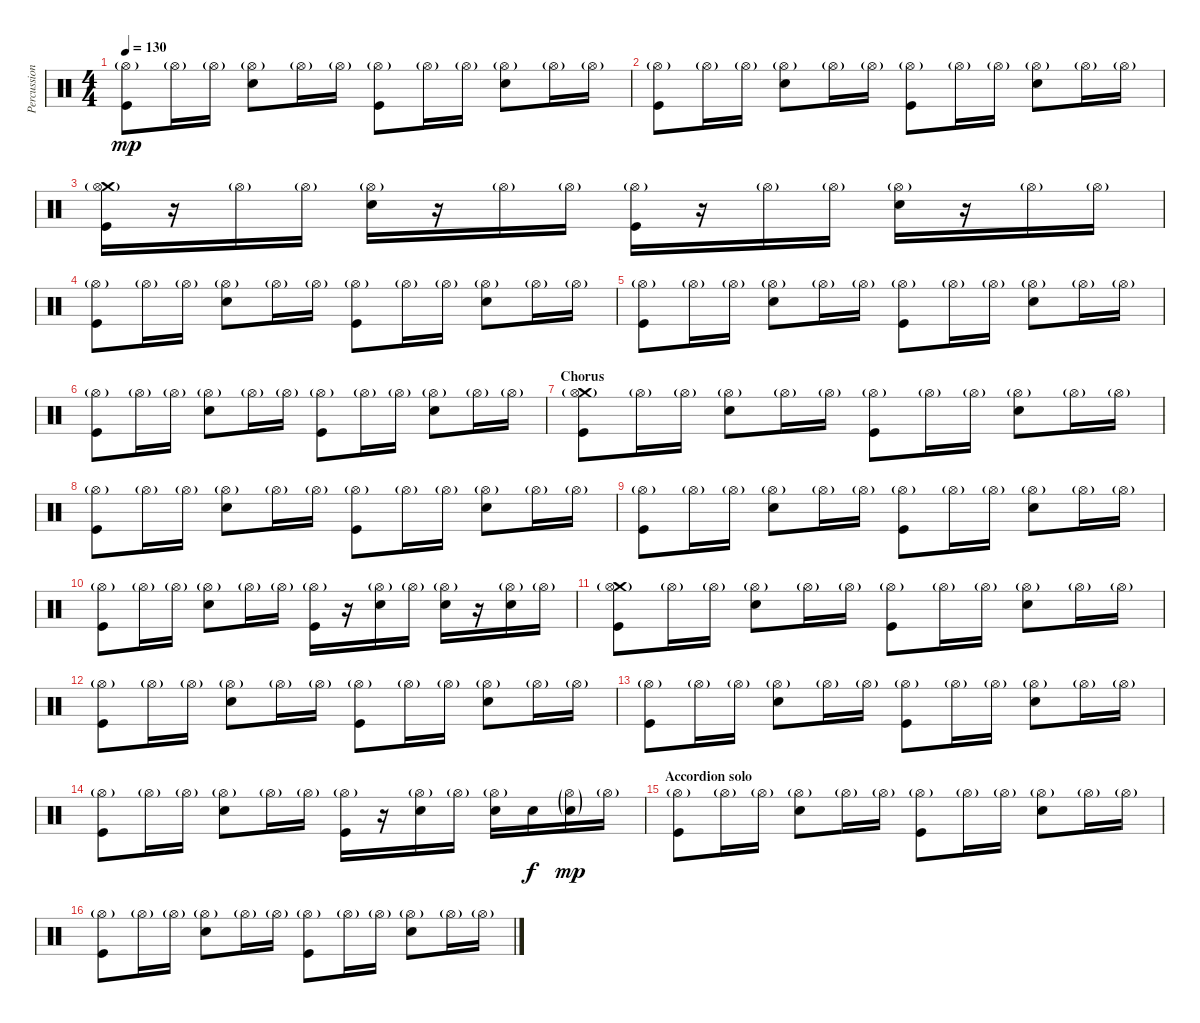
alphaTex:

\track ("Percussion" "Percussion") {instrument percussion}
\staff {score}
\articulation defaults
\ts (4 4)
\tempo 130
\clef neutral
\ks c
("Hi-Hat (open)"{g} "Kick (hit)").8{dy mp balance 8} "Hi-Hat (open)"{g}.16 "Hi-Hat (open)"{g}.16 ("Hi-Hat (open)"{g} "Snare (hit) 2").8 "Hi-Hat (open)"{g}.16 "Hi-Hat (open)"{g}.16 ("Hi-Hat (open)"{g} "Kick (hit)").8 "Hi-Hat (open)"{g}.16 "Hi-Hat (open)"{g}.16 ("Hi-Hat (open)"{g} "Snare (hit) 2").8 "Hi-Hat (open)"{g}.16 "Hi-Hat (open)"{g}.16 |
("Hi-Hat (open)"{g} "Kick (hit)").8{balance 8} "Hi-Hat (open)"{g}.16 "Hi-Hat (open)"{g}.16 ("Hi-Hat (open)"{g} "Snare (hit) 2").8 "Hi-Hat (open)"{g}.16 "Hi-Hat (open)"{g}.16 ("Hi-Hat (open)"{g} "Kick (hit)").8 "Hi-Hat (open)"{g}.16 "Hi-Hat (open)"{g}.16 ("Hi-Hat (open)"{g} "Snare (hit) 2").8 "Hi-Hat (open)"{g}.16 "Hi-Hat (open)"{g}.16 |
("Crash medium (hit)" "Hi-Hat (open)"{g} "Kick (hit)").16{balance 8} r.16 "Hi-Hat (open)"{g}.16 "Hi-Hat (open)"{g}.16 ("Hi-Hat (open)"{g} "Snare (hit) 2").16 r.16 "Hi-Hat (open)"{g}.16 "Hi-Hat (open)"{g}.16 ("Hi-Hat (open)"{g} "Kick (hit)").16 r.16 "Hi-Hat (open)"{g}.16 "Hi-Hat (open)"{g}.16 ("Hi-Hat (open)"{g} "Snare (hit) 2").16 r.16 "Hi-Hat (open)"{g}.16 "Hi-Hat (open)"{g}.16 |
("Hi-Hat (open)"{g} "Kick (hit)").8{balance 8} "Hi-Hat (open)"{g}.16 "Hi-Hat (open)"{g}.16 ("Hi-Hat (open)"{g} "Snare (hit) 2").8 "Hi-Hat (open)"{g}.16 "Hi-Hat (open)"{g}.16 ("Hi-Hat (open)"{g} "Kick (hit)").8 "Hi-Hat (open)"{g}.16 "Hi-Hat (open)"{g}.16 ("Hi-Hat (open)"{g} "Snare (hit) 2").8 "Hi-Hat (open)"{g}.16 "Hi-Hat (open)"{g}.16 |
("Hi-Hat (open)"{g} "Kick (hit)").8{balance 8} "Hi-Hat (open)"{g}.16 "Hi-Hat (open)"{g}.16 ("Hi-Hat (open)"{g} "Snare (hit) 2").8 "Hi-Hat (open)"{g}.16 "Hi-Hat (open)"{g}.16 ("Hi-Hat (open)"{g} "Kick (hit)").8 "Hi-Hat (open)"{g}.16 "Hi-Hat (open)"{g}.16 ("Hi-Hat (open)"{g} "Snare (hit) 2").8 "Hi-Hat (open)"{g}.16 "Hi-Hat (open)"{g}.16 |
("Hi-Hat (open)"{g} "Kick (hit)").8{balance 8} "Hi-Hat (open)"{g}.16 "Hi-Hat (open)"{g}.16 ("Hi-Hat (open)"{g} "Snare (hit) 2").8 "Hi-Hat (open)"{g}.16 "Hi-Hat (open)"{g}.16 ("Hi-Hat (open)"{g} "Kick (hit)").8 "Hi-Hat (open)"{g}.16 "Hi-Hat (open)"{g}.16 ("Hi-Hat (open)"{g} "Snare (hit) 2").8 "Hi-Hat (open)"{g}.16 "Hi-Hat (open)"{g}.16 |
\section ("" "Chorus")
("Crash medium (hit)" "Hi-Hat (open)"{g} "Kick (hit)").8{balance 8} "Hi-Hat (open)"{g}.16 "Hi-Hat (open)"{g}.16 ("Hi-Hat (open)"{g} "Snare (hit) 2").8 "Hi-Hat (open)"{g}.16 "Hi-Hat (open)"{g}.16 ("Hi-Hat (open)"{g} "Kick (hit)").8 "Hi-Hat (open)"{g}.16 "Hi-Hat (open)"{g}.16 ("Hi-Hat (open)"{g} "Snare (hit) 2").8 "Hi-Hat (open)"{g}.16 "Hi-Hat (open)"{g}.16 |
("Hi-Hat (open)"{g} "Kick (hit)").8 "Hi-Hat (open)"{g}.16 "Hi-Hat (open)"{g}.16 ("Hi-Hat (open)"{g} "Snare (hit) 2").8 "Hi-Hat (open)"{g}.16 "Hi-Hat (open)"{g}.16 ("Hi-Hat (open)"{g} "Kick (hit)").8 "Hi-Hat (open)"{g}.16 "Hi-Hat (open)"{g}.16 ("Hi-Hat (open)"{g} "Snare (hit) 2").8 "Hi-Hat (open)"{g}.16 "Hi-Hat (open)"{g}.16 |
("Hi-Hat (open)"{g} "Kick (hit)").8 "Hi-Hat (open)"{g}.16 "Hi-Hat (open)"{g}.16 ("Hi-Hat (open)"{g} "Snare (hit) 2").8 "Hi-Hat (open)"{g}.16 "Hi-Hat (open)"{g}.16 ("Hi-Hat (open)"{g} "Kick (hit)").8 "Hi-Hat (open)"{g}.16 "Hi-Hat (open)"{g}.16 ("Hi-Hat (open)"{g} "Snare (hit) 2").8 "Hi-Hat (open)"{g}.16 "Hi-Hat (open)"{g}.16 |
("Hi-Hat (open)"{g} "Kick (hit)").8 "Hi-Hat (open)"{g}.16 "Hi-Hat (open)"{g}.16 ("Hi-Hat (open)"{g} "Snare (hit) 2").8 "Hi-Hat (open)"{g}.16 "Hi-Hat (open)"{g}.16 ("Hi-Hat (open)"{g} "Kick (hit)").16 r.16 ("Hi-Hat (open)"{g} "Snare (hit) 2").16 "Hi-Hat (open)"{g}.16 ("Hi-Hat (open)"{g} "Snare (hit) 2").16 r.16 ("Hi-Hat (open)"{g} "Snare (hit) 2").16 "Hi-Hat (open)"{g}.16 |
("Crash medium (hit)" "Hi-Hat (open)"{g} "Kick (hit)").8{balance 8} "Hi-Hat (open)"{g}.16 "Hi-Hat (open)"{g}.16 ("Hi-Hat (open)"{g} "Snare (hit) 2").8 "Hi-Hat (open)"{g}.16 "Hi-Hat (open)"{g}.16 ("Hi-Hat (open)"{g} "Kick (hit)").8 "Hi-Hat (open)"{g}.16 "Hi-Hat (open)"{g}.16 ("Hi-Hat (open)"{g} "Snare (hit) 2").8 "Hi-Hat (open)"{g}.16 "Hi-Hat (open)"{g}.16 |
("Hi-Hat (open)"{g} "Kick (hit)").8 "Hi-Hat (open)"{g}.16 "Hi-Hat (open)"{g}.16 ("Hi-Hat (open)"{g} "Snare (hit) 2").8 "Hi-Hat (open)"{g}.16 "Hi-Hat (open)"{g}.16 ("Hi-Hat (open)"{g} "Kick (hit)").8 "Hi-Hat (open)"{g}.16 "Hi-Hat (open)"{g}.16 ("Hi-Hat (open)"{g} "Snare (hit) 2").8 "Hi-Hat (open)"{g}.16 "Hi-Hat (open)"{g}.16 |
("Hi-Hat (open)"{g} "Kick (hit)").8 "Hi-Hat (open)"{g}.16 "Hi-Hat (open)"{g}.16 ("Hi-Hat (open)"{g} "Snare (hit) 2").8 "Hi-Hat (open)"{g}.16 "Hi-Hat (open)"{g}.16 ("Hi-Hat (open)"{g} "Kick (hit)").8 "Hi-Hat (open)"{g}.16 "Hi-Hat (open)"{g}.16 ("Hi-Hat (open)"{g} "Snare (hit) 2").8 "Hi-Hat (open)"{g}.16 "Hi-Hat (open)"{g}.16 |
("Hi-Hat (open)"{g} "Kick (hit)").8 "Hi-Hat (open)"{g}.16 "Hi-Hat (open)"{g}.16 ("Hi-Hat (open)"{g} "Snare (hit) 2").8 "Hi-Hat (open)"{g}.16 "Hi-Hat (open)"{g}.16 ("Hi-Hat (open)"{g} "Kick (hit)").16 r.16 ("Hi-Hat (open)"{g} "Snare (hit) 2").16 "Hi-Hat (open)"{g}.16 ("Hi-Hat (open)"{g} "Snare (hit) 2").16 "Snare (hit) 2".16{dy f} ("Hi-Hat (open)"{g} "Snare (hit) 2"{g}).16{dy mp} "Hi-Hat (open)"{g}.16 |
\section ("" "Accordion solo")
("Hi-Hat (open)"{g} "Kick (hit)").8{balance 8} "Hi-Hat (open)"{g}.16 "Hi-Hat (open)"{g}.16 ("Hi-Hat (open)"{g} "Snare (hit) 2").8 "Hi-Hat (open)"{g}.16 "Hi-Hat (open)"{g}.16 ("Hi-Hat (open)"{g} "Kick (hit)").8 "Hi-Hat (open)"{g}.16 "Hi-Hat (open)"{g}.16 ("Hi-Hat (open)"{g} "Snare (hit) 2").8 "Hi-Hat (open)"{g}.16 "Hi-Hat (open)"{g}.16 |
("Hi-Hat (open)"{g} "Kick (hit)").8 "Hi-Hat (open)"{g}.16 "Hi-Hat (open)"{g}.16 ("Hi-Hat (open)"{g} "Snare (hit) 2").8 "Hi-Hat (open)"{g}.16 "Hi-Hat (open)"{g}.16 ("Hi-Hat (open)"{g} "Kick (hit)").8 "Hi-Hat (open)"{g}.16 "Hi-Hat (open)"{g}.16 ("Hi-Hat (open)"{g} "Snare (hit) 2").8 "Hi-Hat (open)"{g}.16 "Hi-Hat (open)"{g}.16
